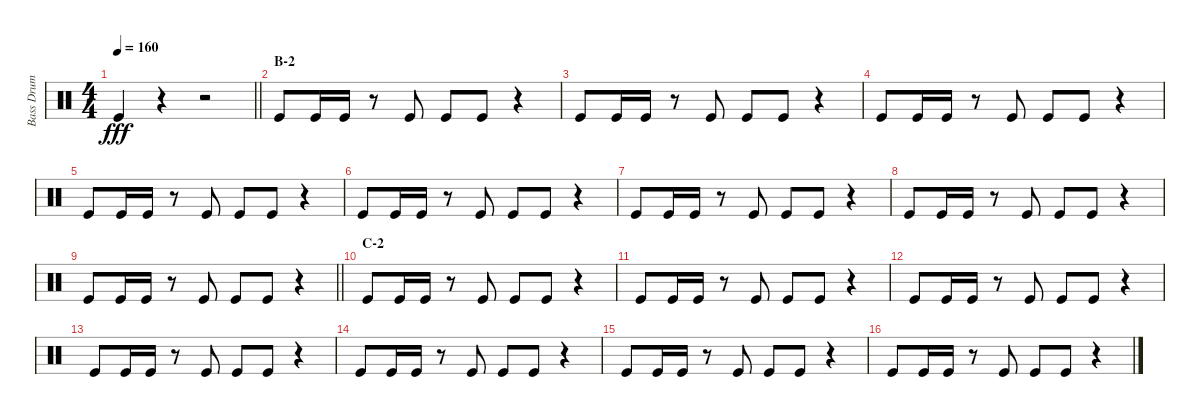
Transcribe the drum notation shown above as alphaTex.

\track ("Bass Drum" "Bass Drum") {instrument percussion}
\staff {score}
\articulation defaults
\ts (4 4)
\tempo 160
\clef neutral
\barLineRight lightlight
\ks c "Kick (hit)".4{dy fff}
r.4 r.2 |
\section ("" "B-2")
"Kick (hit)".8 "Kick (hit)".16 "Kick (hit)".16 r.8 "Kick (hit)".8 "Kick (hit)".8 "Kick (hit)".8 r.4 |
"Kick (hit)".8 "Kick (hit)".16 "Kick (hit)".16 r.8 "Kick (hit)".8 "Kick (hit)".8 "Kick (hit)".8 r.4 |
"Kick (hit)".8 "Kick (hit)".16 "Kick (hit)".16 r.8 "Kick (hit)".8 "Kick (hit)".8 "Kick (hit)".8 r.4 |
"Kick (hit)".8 "Kick (hit)".16 "Kick (hit)".16 r.8 "Kick (hit)".8 "Kick (hit)".8 "Kick (hit)".8 r.4 |
"Kick (hit)".8 "Kick (hit)".16 "Kick (hit)".16 r.8 "Kick (hit)".8 "Kick (hit)".8 "Kick (hit)".8 r.4 |
"Kick (hit)".8 "Kick (hit)".16 "Kick (hit)".16 r.8 "Kick (hit)".8 "Kick (hit)".8 "Kick (hit)".8 r.4 |
"Kick (hit)".8 "Kick (hit)".16 "Kick (hit)".16 r.8 "Kick (hit)".8 "Kick (hit)".8 "Kick (hit)".8 r.4 |
\barLineRight lightlight "Kick (hit)".8 "Kick (hit)".16 "Kick (hit)".16
r.8 "Kick (hit)".8 "Kick (hit)".8 "Kick (hit)".8 r.4 |
\section ("" "C-2")
"Kick (hit)".8 "Kick (hit)".16 "Kick (hit)".16 r.8 "Kick (hit)".8 "Kick (hit)".8 "Kick (hit)".8 r.4 |
"Kick (hit)".8 "Kick (hit)".16 "Kick (hit)".16 r.8 "Kick (hit)".8 "Kick (hit)".8 "Kick (hit)".8 r.4 |
"Kick (hit)".8 "Kick (hit)".16 "Kick (hit)".16 r.8 "Kick (hit)".8 "Kick (hit)".8 "Kick (hit)".8 r.4 |
"Kick (hit)".8 "Kick (hit)".16 "Kick (hit)".16 r.8 "Kick (hit)".8 "Kick (hit)".8 "Kick (hit)".8 r.4 |
"Kick (hit)".8 "Kick (hit)".16 "Kick (hit)".16 r.8 "Kick (hit)".8 "Kick (hit)".8 "Kick (hit)".8 r.4 |
"Kick (hit)".8 "Kick (hit)".16 "Kick (hit)".16 r.8 "Kick (hit)".8 "Kick (hit)".8 "Kick (hit)".8 r.4 |
"Kick (hit)".8 "Kick (hit)".16 "Kick (hit)".16 r.8 "Kick (hit)".8 "Kick (hit)".8 "Kick (hit)".8 r.4
